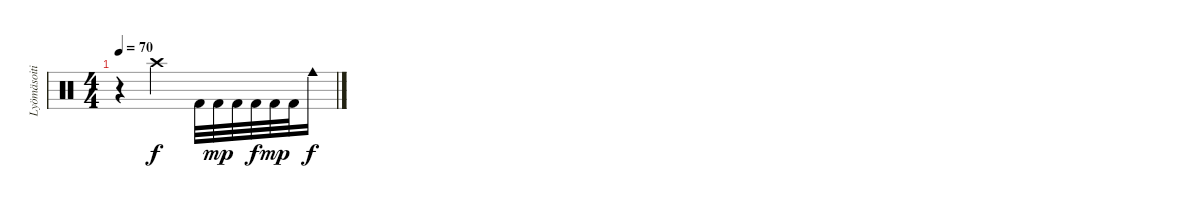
\track ("Lyömäsoitin" "Lyömäsoiti") {instrument percussion}
\staff {score}
\articulation defaults
\ts (4 4)
\tempo 70
\clef neutral
\ks c
r.4{dy f} "Crash high (hit)".2 "Kick (hit) 2".32 "Kick (hit) 2".32{dy mp} "Kick (hit) 2".32 "Kick (hit) 2".32{dy f} "Kick (hit) 2".32{dy mp} "Kick (hit) 2".32 "Cowbell medium (hit)".16{dy f}
